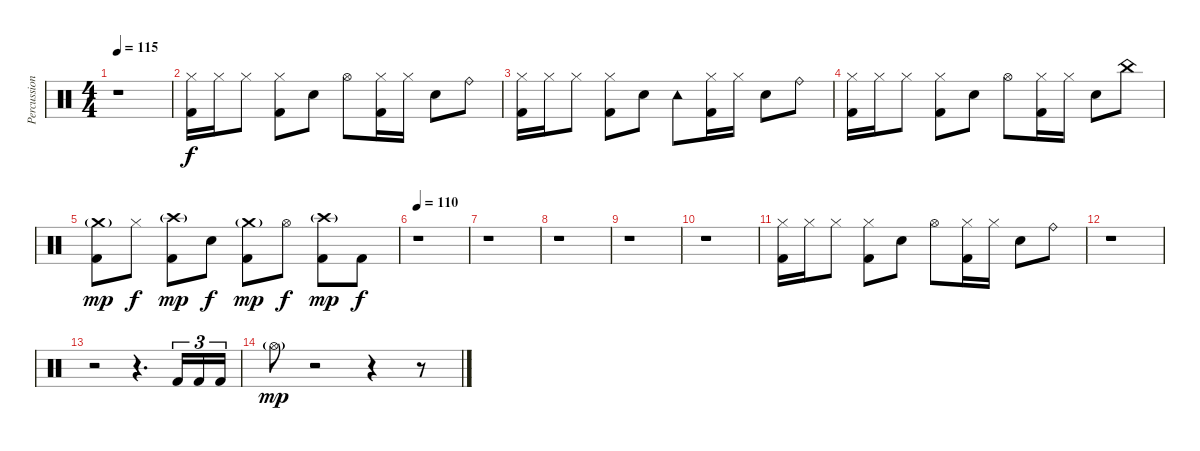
\track ("Percussioni" "Percussion") {instrument percussion}
\staff {score}
\articulation defaults
\ts (4 4)
\tempo 115
\clef neutral
\ks c
r.1{dy f} |
("Hi-Hat (closed)" "Kick (hit) 2").16 "Hi-Hat (closed)".16 "Hi-Hat (closed)".8 ("Hi-Hat (closed)" "Kick (hit) 2").8 "Electric Snare (hit)".8 "Hi-Hat (open)".8 ("Hi-Hat (closed)" "Kick (hit) 2").16 "Hi-Hat (closed)".16 "Electric Snare (hit)".8 "Ride (bell)".8 |
("Hi-Hat (closed)" "Kick (hit) 2").16 "Hi-Hat (closed)".16 "Hi-Hat (closed)".8 ("Hi-Hat (closed)" "Kick (hit) 2").8 "Electric Snare (hit)".8 "Tambourine (hit)".8 ("Hi-Hat (closed)" "Kick (hit) 2").16 "Hi-Hat (closed)".16 "Electric Snare (hit)".8 "Ride (bell)".8 |
("Hi-Hat (closed)" "Kick (hit) 2").16 "Hi-Hat (closed)".16 "Hi-Hat (closed)".8 ("Hi-Hat (closed)" "Kick (hit) 2").8 "Electric Snare (hit)".8 "Hi-Hat (open)".8 ("Hi-Hat (closed)" "Kick (hit) 2").16 "Hi-Hat (closed)".16 "Electric Snare (hit)".8 "China (hit)".8 |
("Crash medium (hit)"{g} "Kick (hit) 2").8{dy mp} "Hi-Hat (closed)".8{dy f} ("Crash high (hit)"{g} "Kick (hit) 2").8{dy mp} "Electric Snare (hit)".8{dy f} ("Crash medium (hit)"{g} "Kick (hit) 2").8{dy mp} "Hi-Hat (open)".8{dy f} ("Crash high (hit)"{g} "Kick (hit) 2").8{dy mp} "Kick (hit) 2".8{dy f} |
\tempo 110
r.1 |
r.1 |
r.1 |
r.1 |
r.1 |
("Hi-Hat (closed)" "Kick (hit) 2").16 "Hi-Hat (closed)".16 "Hi-Hat (closed)".8 ("Hi-Hat (closed)" "Kick (hit) 2").8 "Electric Snare (hit)".8 "Hi-Hat (open)".8 ("Hi-Hat (closed)" "Kick (hit) 2").16 "Hi-Hat (closed)".16 "Electric Snare (hit)".8 "Ride (bell)".8 |
r.1 |
r.2 r.4{d} "Kick (hit) 2".16{tu (3 2)} "Kick (hit) 2".16{tu (3 2)} "Kick (hit) 2".16{tu (3 2)} |
"Hi-Hat (open)"{g}.8{dy mp} r.2 r.4 r.8
